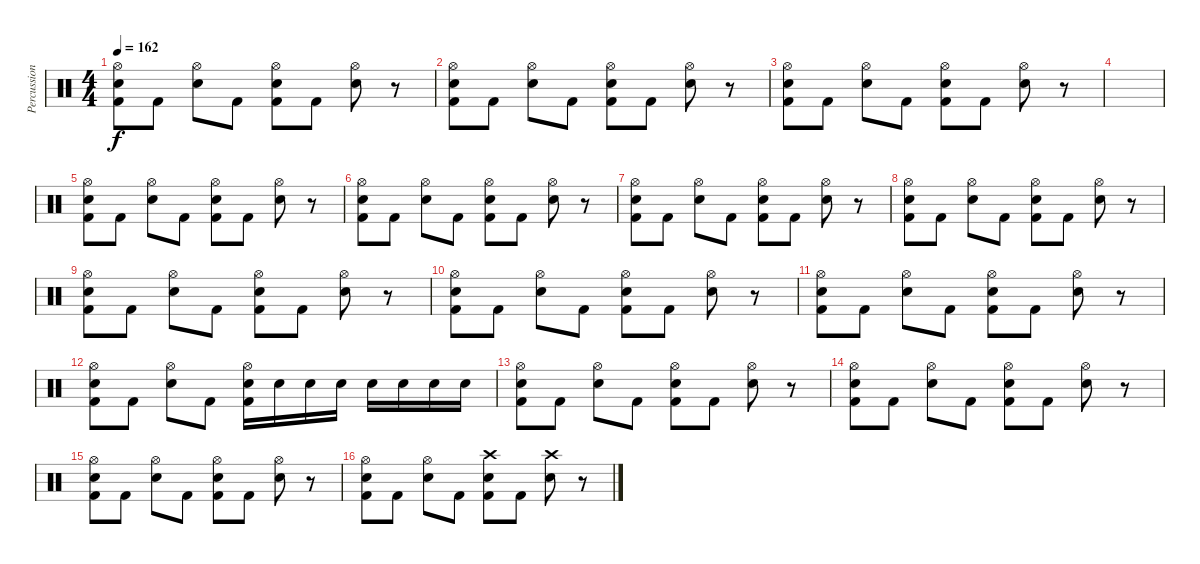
\track ("Percussion" "Percussion") {instrument percussion}
\staff {score}
\articulation defaults
\ts (4 4)
\tempo 162
\clef neutral
\ks c
("Kick (hit) 2" "Electric Snare (hit)" "Hi-Hat (open)").8{dy f} "Kick (hit) 2".8 ("Electric Snare (hit)" "Hi-Hat (open)").8 "Kick (hit) 2".8 ("Kick (hit) 2" "Electric Snare (hit)" "Hi-Hat (open)").8 "Kick (hit) 2".8 ("Electric Snare (hit)" "Hi-Hat (open)").8 r.8 |
("Kick (hit) 2" "Electric Snare (hit)" "Hi-Hat (open)").8 "Kick (hit) 2".8 ("Electric Snare (hit)" "Hi-Hat (open)").8 "Kick (hit) 2".8 ("Kick (hit) 2" "Electric Snare (hit)" "Hi-Hat (open)").8 "Kick (hit) 2".8 ("Electric Snare (hit)" "Hi-Hat (open)").8 r.8 |
("Kick (hit) 2" "Electric Snare (hit)" "Hi-Hat (open)").8 "Kick (hit) 2".8 ("Electric Snare (hit)" "Hi-Hat (open)").8 "Kick (hit) 2".8 ("Kick (hit) 2" "Electric Snare (hit)" "Hi-Hat (open)").8 "Kick (hit) 2".8 ("Electric Snare (hit)" "Hi-Hat (open)").8 r.8 |
|
("Kick (hit) 2" "Electric Snare (hit)" "Hi-Hat (open)").8 "Kick (hit) 2".8 ("Electric Snare (hit)" "Hi-Hat (open)").8 "Kick (hit) 2".8 ("Kick (hit) 2" "Electric Snare (hit)" "Hi-Hat (open)").8 "Kick (hit) 2".8 ("Electric Snare (hit)" "Hi-Hat (open)").8 r.8 |
("Kick (hit) 2" "Electric Snare (hit)" "Hi-Hat (open)").8 "Kick (hit) 2".8 ("Electric Snare (hit)" "Hi-Hat (open)").8 "Kick (hit) 2".8 ("Kick (hit) 2" "Electric Snare (hit)" "Hi-Hat (open)").8 "Kick (hit) 2".8 ("Electric Snare (hit)" "Hi-Hat (open)").8 r.8 |
("Kick (hit) 2" "Electric Snare (hit)" "Hi-Hat (open)").8 "Kick (hit) 2".8 ("Electric Snare (hit)" "Hi-Hat (open)").8 "Kick (hit) 2".8 ("Kick (hit) 2" "Electric Snare (hit)" "Hi-Hat (open)").8 "Kick (hit) 2".8 ("Electric Snare (hit)" "Hi-Hat (open)").8 r.8 |
("Kick (hit) 2" "Electric Snare (hit)" "Hi-Hat (open)").8 "Kick (hit) 2".8 ("Electric Snare (hit)" "Hi-Hat (open)").8 "Kick (hit) 2".8 ("Kick (hit) 2" "Electric Snare (hit)" "Hi-Hat (open)").8 "Kick (hit) 2".8 ("Electric Snare (hit)" "Hi-Hat (open)").8 r.8 |
("Kick (hit) 2" "Electric Snare (hit)" "Hi-Hat (open)").8 "Kick (hit) 2".8 ("Electric Snare (hit)" "Hi-Hat (open)").8 "Kick (hit) 2".8 ("Kick (hit) 2" "Electric Snare (hit)" "Hi-Hat (open)").8 "Kick (hit) 2".8 ("Electric Snare (hit)" "Hi-Hat (open)").8 r.8 |
("Kick (hit) 2" "Electric Snare (hit)" "Hi-Hat (open)").8 "Kick (hit) 2".8 ("Electric Snare (hit)" "Hi-Hat (open)").8 "Kick (hit) 2".8 ("Kick (hit) 2" "Electric Snare (hit)" "Hi-Hat (open)").8 "Kick (hit) 2".8 ("Electric Snare (hit)" "Hi-Hat (open)").8 r.8 |
("Kick (hit) 2" "Electric Snare (hit)" "Hi-Hat (open)").8 "Kick (hit) 2".8 ("Electric Snare (hit)" "Hi-Hat (open)").8 "Kick (hit) 2".8 ("Kick (hit) 2" "Electric Snare (hit)" "Hi-Hat (open)").8 "Kick (hit) 2".8 ("Electric Snare (hit)" "Hi-Hat (open)").8 r.8 |
("Kick (hit) 2" "Electric Snare (hit)" "Hi-Hat (open)").8 "Kick (hit) 2".8 ("Electric Snare (hit)" "Hi-Hat (open)").8 "Kick (hit) 2".8 ("Kick (hit) 2" "Electric Snare (hit)" "Hi-Hat (open)").16 "Electric Snare (hit)".16 "Electric Snare (hit)".16 "Electric Snare (hit)".16 "Electric Snare (hit)".16 "Electric Snare (hit)".16 "Electric Snare (hit)".16 "Electric Snare (hit)".16 |
("Kick (hit) 2" "Electric Snare (hit)" "Hi-Hat (open)").8 "Kick (hit) 2".8 ("Electric Snare (hit)" "Hi-Hat (open)").8 "Kick (hit) 2".8 ("Kick (hit) 2" "Electric Snare (hit)" "Hi-Hat (open)").8 "Kick (hit) 2".8 ("Electric Snare (hit)" "Hi-Hat (open)").8 r.8 |
("Kick (hit) 2" "Electric Snare (hit)" "Hi-Hat (open)").8 "Kick (hit) 2".8 ("Electric Snare (hit)" "Hi-Hat (open)").8 "Kick (hit) 2".8 ("Kick (hit) 2" "Electric Snare (hit)" "Hi-Hat (open)").8 "Kick (hit) 2".8 ("Electric Snare (hit)" "Hi-Hat (open)").8 r.8 |
("Kick (hit) 2" "Electric Snare (hit)" "Hi-Hat (open)").8 "Kick (hit) 2".8 ("Electric Snare (hit)" "Hi-Hat (open)").8 "Kick (hit) 2".8 ("Kick (hit) 2" "Electric Snare (hit)" "Hi-Hat (open)").8 "Kick (hit) 2".8 ("Electric Snare (hit)" "Hi-Hat (open)").8 r.8 |
("Kick (hit) 2" "Electric Snare (hit)" "Hi-Hat (open)").8 "Kick (hit) 2".8 ("Electric Snare (hit)" "Hi-Hat (open)").8 "Kick (hit) 2".8 ("Kick (hit) 2" "Electric Snare (hit)" "Crash high (hit)").8 "Kick (hit) 2".8 ("Electric Snare (hit)" "Crash high (hit)").8 r.8
